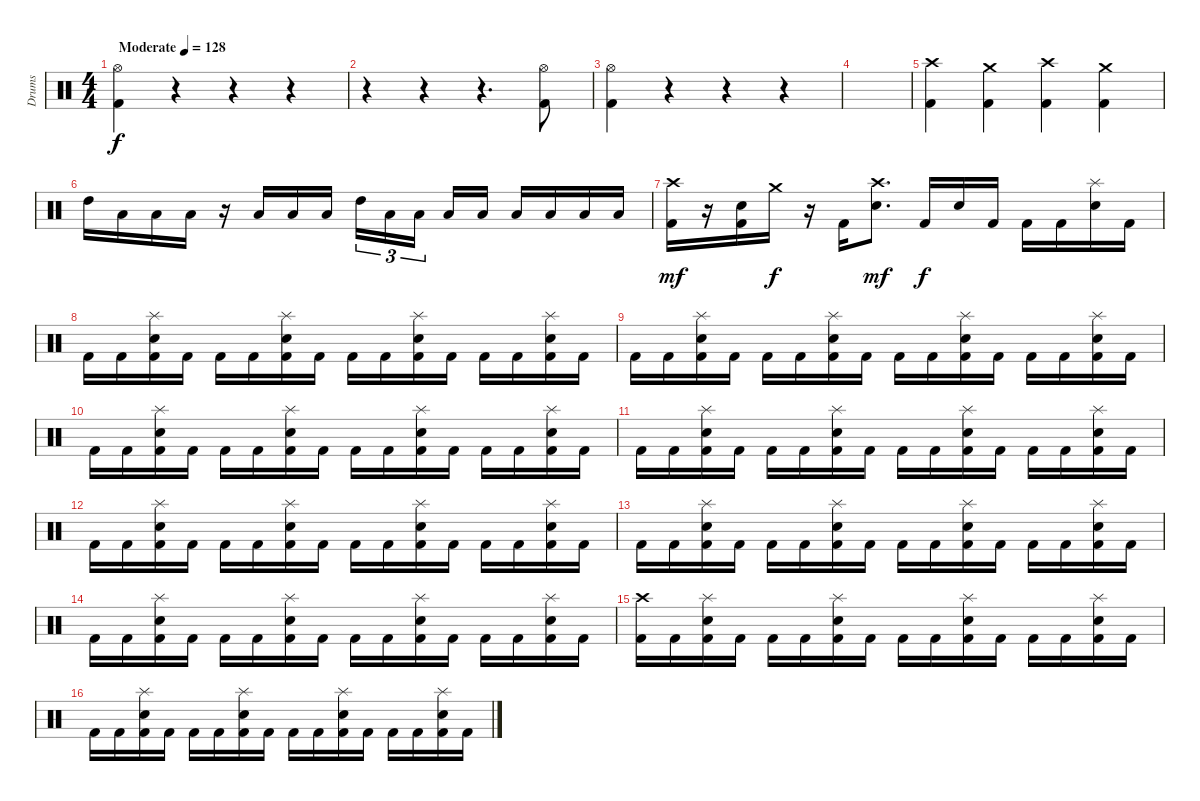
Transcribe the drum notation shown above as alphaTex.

\track ("Drums" "Drums") {instrument percussion}
\staff {score}
\articulation defaults
\ts (4 4)
\tempo (128 "Moderate")
\clef neutral
\ks c
("Hi-Hat (open)" "Kick (hit) 2").4{dy f} r.4 r.4 r.4 |
r.4 r.4 r.4{d} ("Hi-Hat (open)" "Kick (hit) 2").8 |
("Hi-Hat (open)" "Kick (hit) 2").4 r.4 r.4 r.4 |
|
("Crash high (hit)" "Kick (hit) 2").4 ("Crash medium (hit)" "Kick (hit) 2").4 ("Crash high (hit)" "Kick (hit) 2").4 ("Crash medium (hit)" "Kick (hit) 2").4 |
"High Tom (hit)".16 "Low Tom (hit)".16 "Low Tom (hit)".16 "Low Tom (hit)".16 r.16 "Low Tom (hit)".16 "Low Tom (hit)".16 "Low Tom (hit)".16 "High Tom (hit)".16{tu (3 2)} "Low Tom (hit)".16{tu (3 2)} "Low Tom (hit)".16{tu (3 2) beam splitsecondary} "Low Tom (hit)".16 "Low Tom (hit)".16 "Low Tom (hit)".16 "Low Tom (hit)".16 "Low Tom (hit)".16 "Low Tom (hit)".16 |
("Crash high (hit)" "Kick (hit) 2").16{dy mf} r.16 ("Snare (hit) 2" "Kick (hit) 2").16 "Crash medium (hit)".16{dy f} r.16 "Kick (hit) 2".16 ("Crash high (hit)" "Snare (hit) 2").8{d dy mf} "Kick (hit) 2".16{dy f} "Snare (hit) 2".16 "Kick (hit) 2".16 "Kick (hit) 2".16 "Kick (hit) 2".16 ("Splash (hit)" "Snare (hit) 2").16 "Kick (hit) 2".16 |
"Kick (hit) 2".16 "Kick (hit) 2".16 ("Splash (hit)" "Snare (hit) 2" "Kick (hit) 2").16 "Kick (hit) 2".16 "Kick (hit) 2".16 "Kick (hit) 2".16 ("Splash (hit)" "Snare (hit) 2" "Kick (hit) 2").16 "Kick (hit) 2".16 "Kick (hit) 2".16 "Kick (hit) 2".16 ("Splash (hit)" "Snare (hit) 2" "Kick (hit) 2").16 "Kick (hit) 2".16 "Kick (hit) 2".16 "Kick (hit) 2".16 ("Splash (hit)" "Snare (hit) 2" "Kick (hit) 2").16 "Kick (hit) 2".16 |
"Kick (hit) 2".16 "Kick (hit) 2".16 ("Splash (hit)" "Snare (hit) 2" "Kick (hit) 2").16 "Kick (hit) 2".16 "Kick (hit) 2".16 "Kick (hit) 2".16 ("Splash (hit)" "Snare (hit) 2" "Kick (hit) 2").16 "Kick (hit) 2".16 "Kick (hit) 2".16 "Kick (hit) 2".16 ("Splash (hit)" "Snare (hit) 2" "Kick (hit) 2").16 "Kick (hit) 2".16 "Kick (hit) 2".16 "Kick (hit) 2".16 ("Splash (hit)" "Snare (hit) 2" "Kick (hit) 2").16 "Kick (hit) 2".16 |
"Kick (hit) 2".16 "Kick (hit) 2".16 ("Splash (hit)" "Snare (hit) 2" "Kick (hit) 2").16 "Kick (hit) 2".16 "Kick (hit) 2".16 "Kick (hit) 2".16 ("Splash (hit)" "Snare (hit) 2" "Kick (hit) 2").16 "Kick (hit) 2".16 "Kick (hit) 2".16 "Kick (hit) 2".16 ("Splash (hit)" "Snare (hit) 2" "Kick (hit) 2").16 "Kick (hit) 2".16 "Kick (hit) 2".16 "Kick (hit) 2".16 ("Splash (hit)" "Snare (hit) 2" "Kick (hit) 2").16 "Kick (hit) 2".16 |
"Kick (hit) 2".16 "Kick (hit) 2".16 ("Splash (hit)" "Snare (hit) 2" "Kick (hit) 2").16 "Kick (hit) 2".16 "Kick (hit) 2".16 "Kick (hit) 2".16 ("Splash (hit)" "Snare (hit) 2" "Kick (hit) 2").16 "Kick (hit) 2".16 "Kick (hit) 2".16 "Kick (hit) 2".16 ("Splash (hit)" "Snare (hit) 2" "Kick (hit) 2").16 "Kick (hit) 2".16 "Kick (hit) 2".16 "Kick (hit) 2".16 ("Splash (hit)" "Snare (hit) 2" "Kick (hit) 2").16 "Kick (hit) 2".16 |
"Kick (hit) 2".16 "Kick (hit) 2".16 ("Splash (hit)" "Snare (hit) 2" "Kick (hit) 2").16 "Kick (hit) 2".16 "Kick (hit) 2".16 "Kick (hit) 2".16 ("Splash (hit)" "Snare (hit) 2" "Kick (hit) 2").16 "Kick (hit) 2".16 "Kick (hit) 2".16 "Kick (hit) 2".16 ("Splash (hit)" "Snare (hit) 2" "Kick (hit) 2").16 "Kick (hit) 2".16 "Kick (hit) 2".16 "Kick (hit) 2".16 ("Splash (hit)" "Snare (hit) 2" "Kick (hit) 2").16 "Kick (hit) 2".16 |
"Kick (hit) 2".16 "Kick (hit) 2".16 ("Splash (hit)" "Snare (hit) 2" "Kick (hit) 2").16 "Kick (hit) 2".16 "Kick (hit) 2".16 "Kick (hit) 2".16 ("Splash (hit)" "Snare (hit) 2" "Kick (hit) 2").16 "Kick (hit) 2".16 "Kick (hit) 2".16 "Kick (hit) 2".16 ("Splash (hit)" "Snare (hit) 2" "Kick (hit) 2").16 "Kick (hit) 2".16 "Kick (hit) 2".16 "Kick (hit) 2".16 ("Splash (hit)" "Snare (hit) 2" "Kick (hit) 2").16 "Kick (hit) 2".16 |
"Kick (hit) 2".16 "Kick (hit) 2".16 ("Splash (hit)" "Snare (hit) 2" "Kick (hit) 2").16 "Kick (hit) 2".16 "Kick (hit) 2".16 "Kick (hit) 2".16 ("Splash (hit)" "Snare (hit) 2" "Kick (hit) 2").16 "Kick (hit) 2".16 "Kick (hit) 2".16 "Kick (hit) 2".16 ("Splash (hit)" "Snare (hit) 2" "Kick (hit) 2").16 "Kick (hit) 2".16 "Kick (hit) 2".16 "Kick (hit) 2".16 ("Splash (hit)" "Snare (hit) 2" "Kick (hit) 2").16 "Kick (hit) 2".16 |
("Crash high (hit)" "Kick (hit) 2").16 "Kick (hit) 2".16 ("Splash (hit)" "Snare (hit) 2" "Kick (hit) 2").16 "Kick (hit) 2".16 "Kick (hit) 2".16 "Kick (hit) 2".16 ("Splash (hit)" "Snare (hit) 2" "Kick (hit) 2").16 "Kick (hit) 2".16 "Kick (hit) 2".16 "Kick (hit) 2".16 ("Splash (hit)" "Snare (hit) 2" "Kick (hit) 2").16 "Kick (hit) 2".16 "Kick (hit) 2".16 "Kick (hit) 2".16 ("Splash (hit)" "Snare (hit) 2" "Kick (hit) 2").16 "Kick (hit) 2".16 |
"Kick (hit) 2".16 "Kick (hit) 2".16 ("Splash (hit)" "Snare (hit) 2" "Kick (hit) 2").16 "Kick (hit) 2".16 "Kick (hit) 2".16 "Kick (hit) 2".16 ("Splash (hit)" "Snare (hit) 2" "Kick (hit) 2").16 "Kick (hit) 2".16 "Kick (hit) 2".16 "Kick (hit) 2".16 ("Splash (hit)" "Snare (hit) 2" "Kick (hit) 2").16 "Kick (hit) 2".16 "Kick (hit) 2".16 "Kick (hit) 2".16 ("Splash (hit)" "Snare (hit) 2" "Kick (hit) 2").16 "Kick (hit) 2".16
